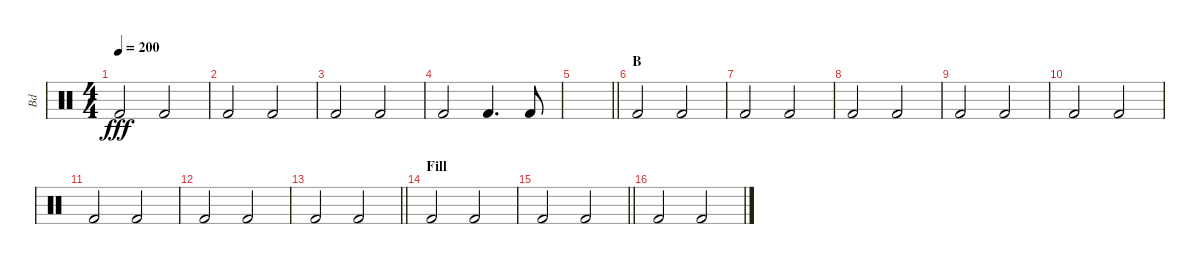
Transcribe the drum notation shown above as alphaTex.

\track ("Bd" "Bd") {instrument percussion}
\staff {score}
\articulation defaults
\ts (4 4)
\tempo 200
\clef neutral
\ks c "Kick (hit) 2".2{dy fff} "Kick (hit) 2".2
|
"Kick (hit) 2".2 "Kick (hit) 2".2 |
"Kick (hit) 2".2 "Kick (hit) 2".2 |
"Kick (hit) 2".2 "Kick (hit) 2".4{d} "Kick (hit) 2".8 |
\barLineRight lightlight
|
\section ("" "B")
"Kick (hit) 2".2 "Kick (hit) 2".2 |
"Kick (hit) 2".2 "Kick (hit) 2".2 |
"Kick (hit) 2".2 "Kick (hit) 2".2 |
"Kick (hit) 2".2 "Kick (hit) 2".2 |
"Kick (hit) 2".2 "Kick (hit) 2".2 |
"Kick (hit) 2".2 "Kick (hit) 2".2 |
"Kick (hit) 2".2 "Kick (hit) 2".2 |
\barLineRight lightlight "Kick (hit) 2".2 "Kick (hit) 2".2
|
\section ("" "Fill")
"Kick (hit) 2".2 "Kick (hit) 2".2 |
\barLineRight lightlight "Kick (hit) 2".2 "Kick (hit) 2".2
|
"Kick (hit) 2".2 "Kick (hit) 2".2
